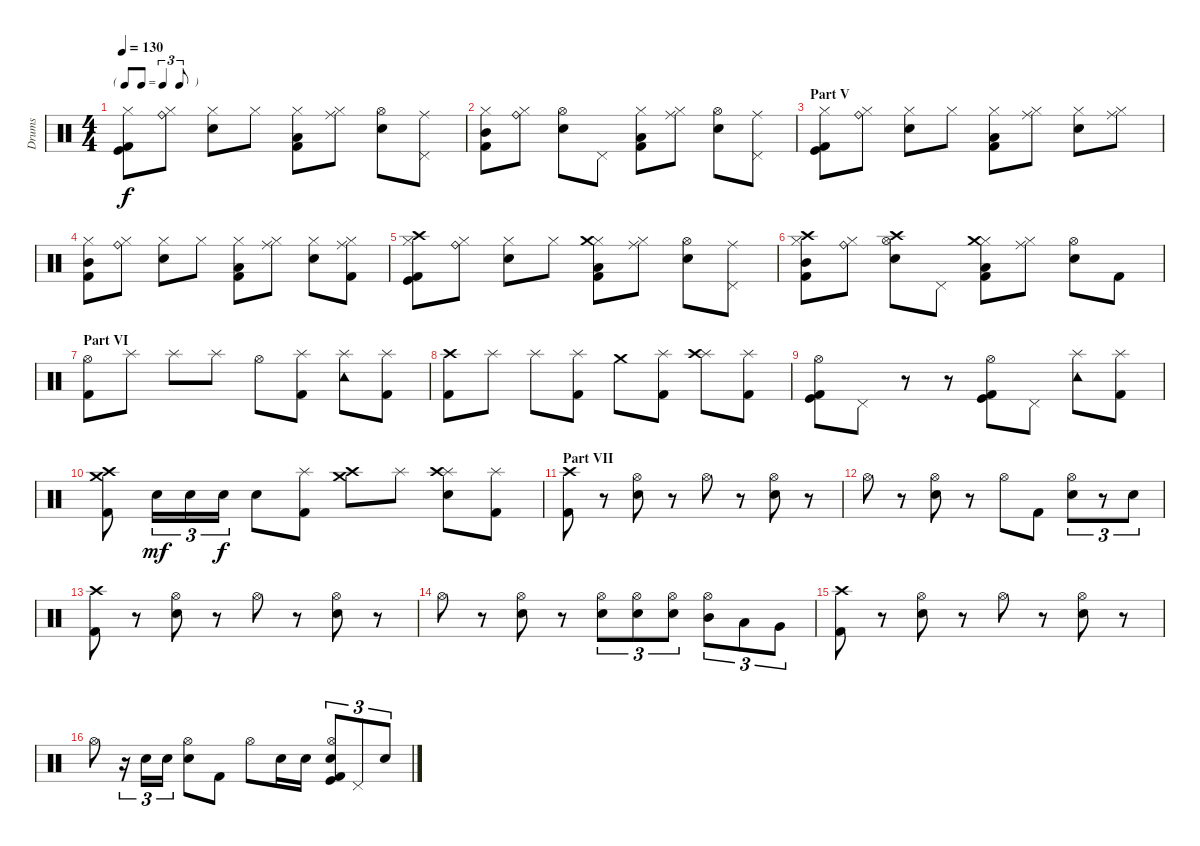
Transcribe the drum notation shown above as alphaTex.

\track ("Drums" "Drums") {instrument percussion}
\staff {score}
\articulation defaults
\ts (4 4)
\tf triplet8th
\tempo 130
\clef neutral
\ks c
("Hi-Hat (closed)" "Kick (hit)" "Kick (hit) 2").8{dy f} ("Hi-Hat (closed)" "Ride (bell)").8 ("Hi-Hat (closed)" "Snare (hit) 2").8 "Hi-Hat (closed)".8 ("Hi-Hat (closed)" "Low Tom (hit)" "Kick (hit) 2").8 ("Hi-Hat (closed)" "Ride (middle)").8 ("Hi-Hat (open)" "Snare (hit) 2").8 ("Pedal Hi-Hat (hit)" "Ride (middle)").8 |
("Hi-Hat (closed)" "Mid Tom (hit)" "Kick (hit) 2").8 ("Hi-Hat (closed)" "Ride (bell)").8 ("Hi-Hat (open)" "Snare (hit) 2").8 "Pedal Hi-Hat (hit)".8 ("Hi-Hat (closed)" "Low Tom (hit)" "Kick (hit) 2").8 ("Hi-Hat (closed)" "Ride (middle)").8 ("Hi-Hat (open)" "Snare (hit) 2").8 ("Pedal Hi-Hat (hit)" "Ride (middle)").8 |
\section ("" "Part V")
("Hi-Hat (closed)" "Kick (hit)" "Kick (hit) 2").8 ("Hi-Hat (closed)" "Ride (bell)").8 ("Hi-Hat (closed)" "Snare (hit) 2").8 "Hi-Hat (closed)".8 ("Hi-Hat (closed)" "Low Tom (hit)" "Kick (hit) 2").8 ("Hi-Hat (closed)" "Ride (middle)").8 ("Hi-Hat (closed)" "Snare (hit) 2").8 ("Hi-Hat (closed)" "Ride (middle)").8 |
("Hi-Hat (closed)" "Mid Tom (hit)" "Kick (hit) 2").8 ("Hi-Hat (closed)" "Ride (bell)").8 ("Hi-Hat (closed)" "Snare (hit) 2").8 "Hi-Hat (closed)".8 ("Hi-Hat (closed)" "Low Tom (hit)" "Kick (hit) 2").8 ("Hi-Hat (closed)" "Ride (middle)").8 ("Hi-Hat (closed)" "Snare (hit) 2").8 ("Hi-Hat (closed)" "Ride (middle)" "Kick (hit) 2").8 |
("Hi-Hat (closed)" "Crash high (hit)" "Kick (hit)" "Kick (hit) 2").8 ("Hi-Hat (closed)" "Ride (bell)").8 ("Hi-Hat (closed)" "Snare (hit) 2").8 "Hi-Hat (closed)".8 ("Hi-Hat (closed)" "Crash medium (hit)" "Low Tom (hit)" "Kick (hit) 2").8 ("Hi-Hat (closed)" "Ride (middle)").8 ("Hi-Hat (open)" "Snare (hit) 2").8 ("Pedal Hi-Hat (hit)" "Ride (middle)").8 |
("Hi-Hat (closed)" "Crash high (hit)" "Mid Tom (hit)" "Kick (hit) 2").8 ("Hi-Hat (closed)" "Ride (bell)").8 ("Hi-Hat (open)" "Crash high (hit)" "Snare (hit) 2").8 "Pedal Hi-Hat (hit)".8 ("Hi-Hat (closed)" "Crash medium (hit)" "Low Tom (hit)" "Kick (hit) 2").8 ("Hi-Hat (closed)" "Ride (middle)").8 ("Hi-Hat (open)" "Snare (hit) 2").8 "Kick (hit) 2".8 |
\section ("" "Part VI")
("Hi-Hat (open)" "Kick (hit) 2").8 "Splash (hit)".8 "Splash (hit)".8 "Splash (hit)".8 "Hi-Hat (open)".8 ("Splash (hit)" "Kick (hit) 2").8 ("Splash (hit)" "Tambourine (hit)").8 ("Splash (hit)" "Kick (hit) 2").8 |
("Crash high (hit)" "Kick (hit) 2").8 "Splash (hit)".8 "Splash (hit)".8 ("Splash (hit)" "Kick (hit) 2").8 "Crash medium (hit)".8 ("Splash (hit)" "Kick (hit) 2").8 ("Splash (hit)" "Crash high (hit)").8 ("Splash (hit)" "Kick (hit) 2").8 |
("Hi-Hat (open)" "Kick (hit)" "Kick (hit) 2").8 "Pedal Hi-Hat (hit)".8 r.8 r.8 ("Hi-Hat (open)" "Kick (hit)" "Kick (hit) 2").8 "Pedal Hi-Hat (hit)".8 ("Splash (hit)" "Tambourine (hit)").8 ("Splash (hit)" "Kick (hit) 2").8 |
("Crash medium (hit)" "Crash high (hit)" "Kick (hit) 2").8 "Snare (hit) 2".16{tu (3 2) dy mf} "Snare (hit) 2".16{tu (3 2)} "Snare (hit) 2".16{tu (3 2) dy f} "Snare (hit) 2".8 ("Splash (hit)" "Kick (hit) 2").8 ("Crash high (hit)" "Crash medium (hit)").8 "Splash (hit)".8 ("Splash (hit)" "Crash high (hit)" "Electric Snare (hit)").8 ("Splash (hit)" "Kick (hit) 2").8 |
\section ("" "Part VII")
("Crash high (hit)" "Kick (hit) 2").8 r.8 ("Hi-Hat (open)" "Electric Snare (hit)").8 r.8 "Hi-Hat (open)".8 r.8 ("Hi-Hat (open)" "Electric Snare (hit)").8 r.8 |
"Hi-Hat (open)".8 r.8 ("Hi-Hat (open)" "Electric Snare (hit)").8 r.8 "Hi-Hat (open)".8 "Kick (hit) 2".8 ("Hi-Hat (open)" "Electric Snare (hit)").8{tu (3 2)} r.8{tu (3 2)} "Electric Snare (hit)".8{tu (3 2)} |
("Crash high (hit)" "Kick (hit) 2").8 r.8 ("Hi-Hat (open)" "Electric Snare (hit)").8 r.8 "Hi-Hat (open)".8 r.8 ("Hi-Hat (open)" "Electric Snare (hit)").8 r.8 |
"Hi-Hat (open)".8 r.8 ("Hi-Hat (open)" "Electric Snare (hit)").8 r.8 ("Hi-Hat (open)" "Electric Snare (hit)").8{tu (3 2)} ("Hi-Hat (open)" "Electric Snare (hit)").8{tu (3 2)} ("Hi-Hat (open)" "Electric Snare (hit)").8{tu (3 2)} ("Hi-Hat (open)" "Mid Tom (hit)").8{tu (3 2)} "Low Tom (hit)".8{tu (3 2)} "Very Low Tom (hit)".8{tu (3 2)} |
("Crash high (hit)" "Kick (hit) 2").8 r.8 ("Hi-Hat (open)" "Electric Snare (hit)").8 r.8 "Hi-Hat (open)".8 r.8 ("Hi-Hat (open)" "Electric Snare (hit)").8 r.8 |
"Hi-Hat (open)".8 r.16{tu (3 2)} "Electric Snare (hit)".16{tu (3 2)} "Electric Snare (hit)".16{tu (3 2)} ("Hi-Hat (open)" "Electric Snare (hit)").8 "Kick (hit) 2".8 "Hi-Hat (open)".8 "Snare (hit) 2".16 "Snare (hit) 2".16 ("Hi-Hat (open)" "Electric Snare (hit)" "Kick (hit)" "Kick (hit) 2").8{tu (3 2)} "Pedal Hi-Hat (hit)".8{tu (3 2)} "Electric Snare (hit)".8{tu (3 2)}
